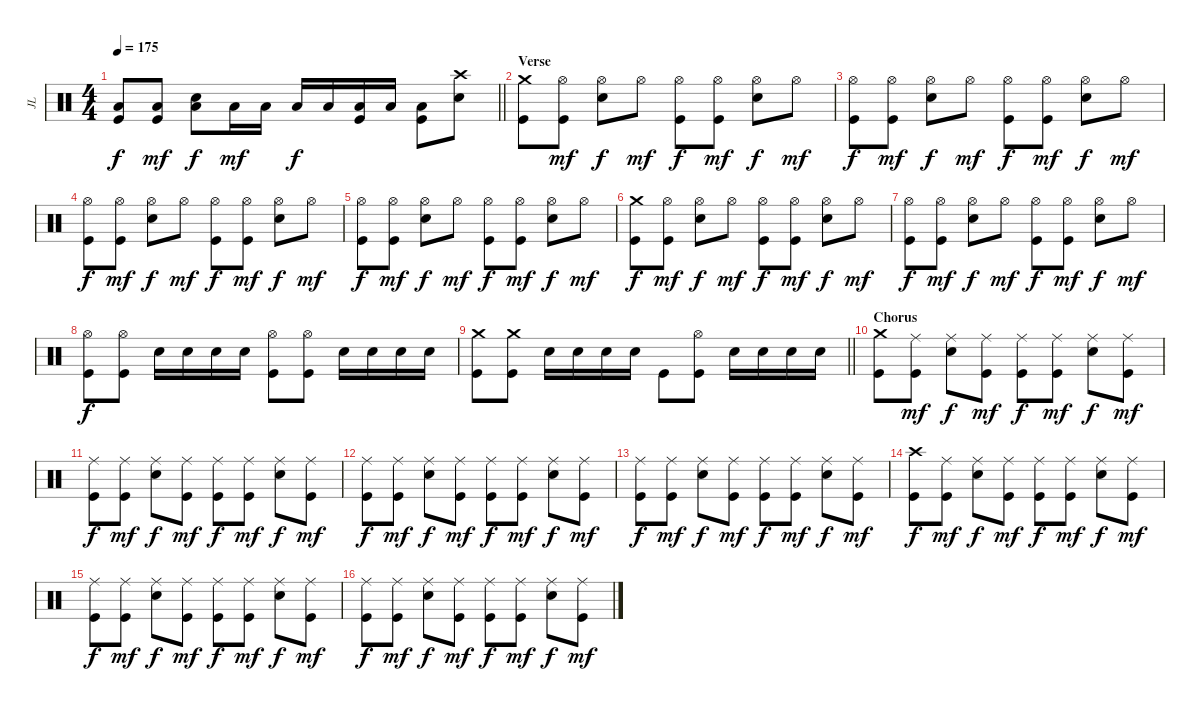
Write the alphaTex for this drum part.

\track ("JL" "JL") {instrument percussion}
\staff {score}
\articulation defaults
\ts (4 4)
\tempo 175
\clef neutral
\barLineRight lightlight
\ks c
("Low Floor Tom (hit)" "Kick (hit)").8{dy f} ("Low Floor Tom (hit)" "Kick (hit)").8{dy mf} ("Electric Snare (hit)" "Low Floor Tom (hit)").8{dy f} "Low Floor Tom (hit)".16{dy mf} "Low Floor Tom (hit)".16 "Low Floor Tom (hit)".16{dy f} "Low Floor Tom (hit)".16 ("Low Floor Tom (hit)" "Kick (hit)").16 "Low Floor Tom (hit)".16 ("Low Floor Tom (hit)" "Kick (hit)").8 ("Crash high (hit)" "Electric Snare (hit)").8 |
\section ("" "Verse")
("Crash medium (hit)" "Kick (hit)").8 ("Hi-Hat (open)" "Kick (hit)").8{dy mf} ("Hi-Hat (open)" "Electric Snare (hit)").8{dy f} "Hi-Hat (open)".8{dy mf} ("Hi-Hat (open)" "Kick (hit)").8{dy f} ("Hi-Hat (open)" "Kick (hit)").8{dy mf} ("Hi-Hat (open)" "Electric Snare (hit)").8{dy f} "Hi-Hat (open)".8{dy mf} |
("Hi-Hat (open)" "Kick (hit)").8{dy f} ("Hi-Hat (open)" "Kick (hit)").8{dy mf} ("Hi-Hat (open)" "Electric Snare (hit)").8{dy f} "Hi-Hat (open)".8{dy mf} ("Hi-Hat (open)" "Kick (hit)").8{dy f} ("Hi-Hat (open)" "Kick (hit)").8{dy mf} ("Hi-Hat (open)" "Electric Snare (hit)").8{dy f} "Hi-Hat (open)".8{dy mf} |
("Hi-Hat (open)" "Kick (hit)").8{dy f} ("Hi-Hat (open)" "Kick (hit)").8{dy mf} ("Hi-Hat (open)" "Electric Snare (hit)").8{dy f} "Hi-Hat (open)".8{dy mf} ("Hi-Hat (open)" "Kick (hit)").8{dy f} ("Hi-Hat (open)" "Kick (hit)").8{dy mf} ("Hi-Hat (open)" "Electric Snare (hit)").8{dy f} "Hi-Hat (open)".8{dy mf} |
("Hi-Hat (open)" "Kick (hit)").8{dy f} ("Hi-Hat (open)" "Kick (hit)").8{dy mf} ("Hi-Hat (open)" "Electric Snare (hit)").8{dy f} "Hi-Hat (open)".8{dy mf} ("Hi-Hat (open)" "Kick (hit)").8{dy f} ("Hi-Hat (open)" "Kick (hit)").8{dy mf} ("Hi-Hat (open)" "Electric Snare (hit)").8{dy f} "Hi-Hat (open)".8{dy mf} |
("Crash medium (hit)" "Kick (hit)").8{dy f} ("Hi-Hat (open)" "Kick (hit)").8{dy mf} ("Hi-Hat (open)" "Electric Snare (hit)").8{dy f} "Hi-Hat (open)".8{dy mf} ("Hi-Hat (open)" "Kick (hit)").8{dy f} ("Hi-Hat (open)" "Kick (hit)").8{dy mf} ("Hi-Hat (open)" "Electric Snare (hit)").8{dy f} "Hi-Hat (open)".8{dy mf} |
("Hi-Hat (open)" "Kick (hit)").8{dy f} ("Hi-Hat (open)" "Kick (hit)").8{dy mf} ("Hi-Hat (open)" "Electric Snare (hit)").8{dy f} "Hi-Hat (open)".8{dy mf} ("Hi-Hat (open)" "Kick (hit)").8{dy f} ("Hi-Hat (open)" "Kick (hit)").8{dy mf} ("Hi-Hat (open)" "Electric Snare (hit)").8{dy f} "Hi-Hat (open)".8{dy mf} |
("Hi-Hat (open)" "Kick (hit)").8{dy f} ("Hi-Hat (open)" "Kick (hit)").8 "Electric Snare (hit)".16 "Electric Snare (hit)".16 "Electric Snare (hit)".16 "Electric Snare (hit)".16 ("Hi-Hat (open)" "Kick (hit)").8 ("Hi-Hat (open)" "Kick (hit)").8 "Electric Snare (hit)".16 "Electric Snare (hit)".16 "Electric Snare (hit)".16 "Electric Snare (hit)".16 |
\barLineRight lightlight
("Crash medium (hit)" "Kick (hit)").8 ("Crash medium (hit)" "Kick (hit)").8 "Electric Snare (hit)".16 "Electric Snare (hit)".16 "Electric Snare (hit)".16 "Electric Snare (hit)".16 "Kick (hit)".8 ("Hi-Hat (open)" "Kick (hit)").8 "Electric Snare (hit)".16 "Electric Snare (hit)".16 "Electric Snare (hit)".16 "Electric Snare (hit)".16 |
\section ("" "Chorus")
("Crash medium (hit)" "Kick (hit)").8 ("Ride (middle)" "Kick (hit)").8{dy mf} ("Ride (middle)" "Electric Snare (hit)").8{dy f} ("Ride (middle)" "Kick (hit)").8{dy mf} ("Ride (middle)" "Kick (hit)").8{dy f} ("Ride (middle)" "Kick (hit)").8{dy mf} ("Ride (middle)" "Electric Snare (hit)").8{dy f} ("Ride (middle)" "Kick (hit)").8{dy mf} |
("Ride (middle)" "Kick (hit)").8{dy f} ("Ride (middle)" "Kick (hit)").8{dy mf} ("Ride (middle)" "Electric Snare (hit)").8{dy f} ("Ride (middle)" "Kick (hit)").8{dy mf} ("Ride (middle)" "Kick (hit)").8{dy f} ("Ride (middle)" "Kick (hit)").8{dy mf} ("Ride (middle)" "Electric Snare (hit)").8{dy f} ("Ride (middle)" "Kick (hit)").8{dy mf} |
("Ride (middle)" "Kick (hit)").8{dy f} ("Ride (middle)" "Kick (hit)").8{dy mf} ("Ride (middle)" "Electric Snare (hit)").8{dy f} ("Ride (middle)" "Kick (hit)").8{dy mf} ("Ride (middle)" "Kick (hit)").8{dy f} ("Ride (middle)" "Kick (hit)").8{dy mf} ("Ride (middle)" "Electric Snare (hit)").8{dy f} ("Ride (middle)" "Kick (hit)").8{dy mf} |
("Ride (middle)" "Kick (hit)").8{dy f} ("Ride (middle)" "Kick (hit)").8{dy mf} ("Ride (middle)" "Electric Snare (hit)").8{dy f} ("Ride (middle)" "Kick (hit)").8{dy mf} ("Ride (middle)" "Kick (hit)").8{dy f} ("Ride (middle)" "Kick (hit)").8{dy mf} ("Ride (middle)" "Electric Snare (hit)").8{dy f} ("Ride (middle)" "Kick (hit)").8{dy mf} |
("Crash high (hit)" "Kick (hit)").8{dy f} ("Ride (middle)" "Kick (hit)").8{dy mf} ("Ride (middle)" "Electric Snare (hit)").8{dy f} ("Ride (middle)" "Kick (hit)").8{dy mf} ("Ride (middle)" "Kick (hit)").8{dy f} ("Ride (middle)" "Kick (hit)").8{dy mf} ("Ride (middle)" "Electric Snare (hit)").8{dy f} ("Ride (middle)" "Kick (hit)").8{dy mf} |
("Ride (middle)" "Kick (hit)").8{dy f} ("Ride (middle)" "Kick (hit)").8{dy mf} ("Ride (middle)" "Electric Snare (hit)").8{dy f} ("Ride (middle)" "Kick (hit)").8{dy mf} ("Ride (middle)" "Kick (hit)").8{dy f} ("Ride (middle)" "Kick (hit)").8{dy mf} ("Ride (middle)" "Electric Snare (hit)").8{dy f} ("Ride (middle)" "Kick (hit)").8{dy mf} |
("Ride (middle)" "Kick (hit)").8{dy f} ("Ride (middle)" "Kick (hit)").8{dy mf} ("Ride (middle)" "Electric Snare (hit)").8{dy f} ("Ride (middle)" "Kick (hit)").8{dy mf} ("Ride (middle)" "Kick (hit)").8{dy f} ("Ride (middle)" "Kick (hit)").8{dy mf} ("Ride (middle)" "Electric Snare (hit)").8{dy f} ("Ride (middle)" "Kick (hit)").8{dy mf}
